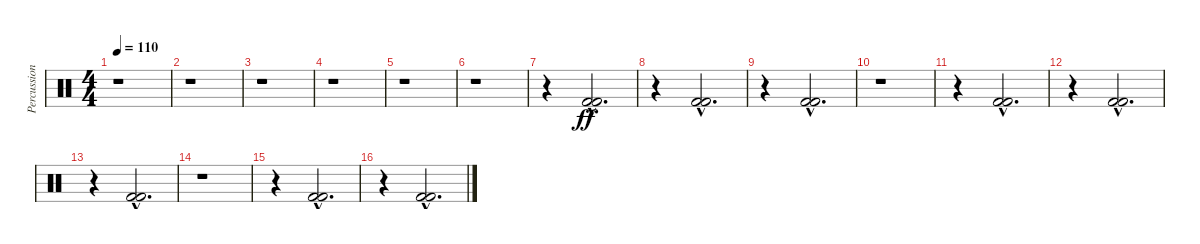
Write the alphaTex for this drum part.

\track ("Percussion" "Percussion") {instrument percussion}
\staff {score}
\articulation defaults
\ts (4 4)
\tempo 110
\clef neutral
\ks c
r.1{dy ff} |
r.1 |
r.1 |
r.1 |
r.1 |
r.1 |
r.4 ("Kick (hit) 2"{hac} "Kick (hit) 2"{hac}).2{d} |
r.4 ("Kick (hit) 2"{hac} "Kick (hit) 2"{hac}).2{d} |
r.4 ("Kick (hit) 2"{hac} "Kick (hit) 2"{hac}).2{d} |
r.1 |
r.4 ("Kick (hit) 2"{hac} "Kick (hit) 2"{hac}).2{d} |
r.4 ("Kick (hit) 2"{hac} "Kick (hit) 2"{hac}).2{d} |
r.4 ("Kick (hit) 2"{hac} "Kick (hit) 2"{hac}).2{d} |
r.1 |
r.4 ("Kick (hit) 2"{hac} "Kick (hit) 2"{hac}).2{d} |
r.4 ("Kick (hit) 2"{hac} "Kick (hit) 2"{hac}).2{d}
